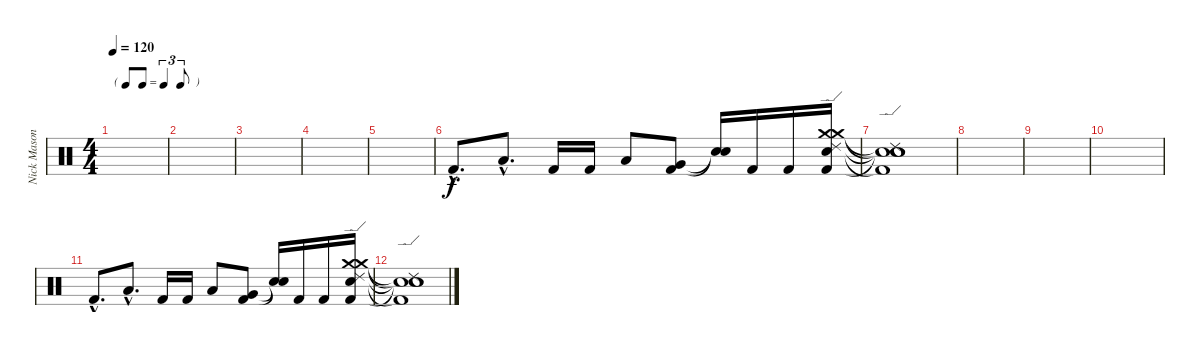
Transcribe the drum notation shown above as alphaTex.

\track ("Nick Mason" "Nick Mason") {instrument percussion}
\staff {score}
\articulation defaults
\ts (4 4)
\tf triplet8th
\tempo 120
\clef neutral
\ks c
|
|
|
|
|
"Kick (hit) 2"{hac}.8{d} "Low Tom (hit)"{hac}.8{d} "Kick (hit) 2".16 "Kick (hit) 2".16 "Low Tom (hit)".8 ("Very Low Tom (hit)" "Kick (hit) 2").8 ("Snare (hit)"{t} "Snare (hit)"{t}).16 "Kick (hit) 2".16 "Kick (hit) 2".16 ("Crash medium (hit)" "Crash medium (hit)" "Electric Snare (hit)" "Kick (hit) 2" "Ride (edge) 2").16 |
("Ride (edge) 2"{t} "Electric Snare (hit)"{t} "Kick (hit) 2"{t} "Snare (hit)"{t} "Snare (hit)"{t}).1 |
|
|
|
"Kick (hit) 2"{hac}.8{d} "Low Tom (hit)"{hac}.8{d} "Kick (hit) 2".16 "Kick (hit) 2".16 "Low Tom (hit)".8 ("Very Low Tom (hit)" "Kick (hit) 2").8 ("Snare (hit)"{t} "Snare (hit)"{t}).16 "Kick (hit) 2".16 "Kick (hit) 2".16 ("Crash medium (hit)" "Crash medium (hit)" "Electric Snare (hit)" "Kick (hit) 2" "Ride (edge) 2").16 |
("Ride (edge) 2"{t} "Electric Snare (hit)"{t} "Kick (hit) 2"{t} "Snare (hit)"{t} "Snare (hit)"{t}).1
